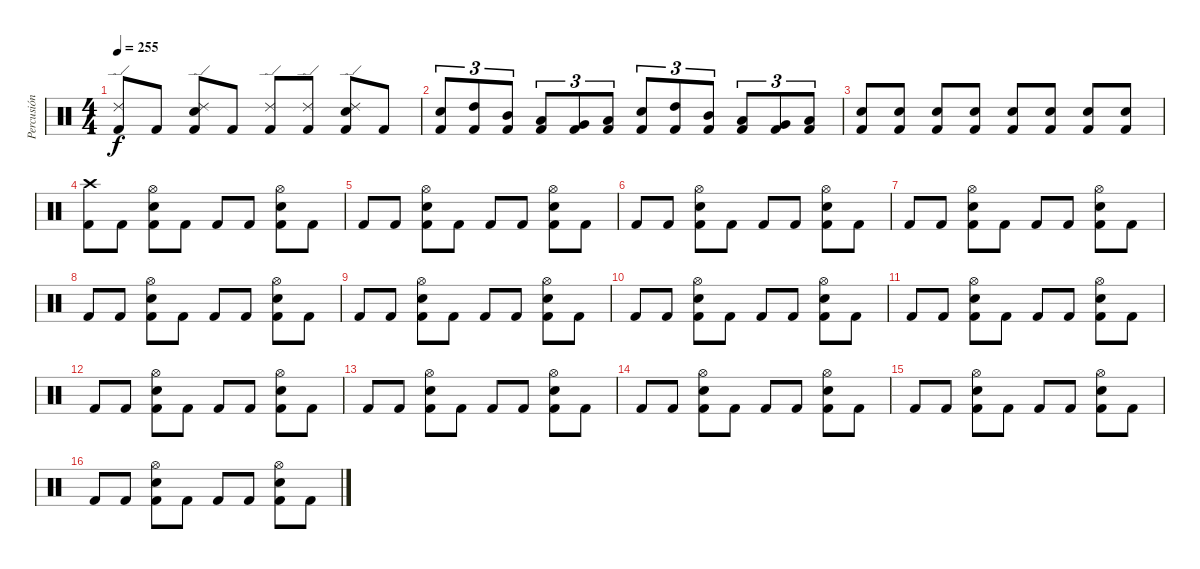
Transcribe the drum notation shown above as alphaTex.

\track ("Percusión" "Percusión") {instrument percussion}
\staff {score}
\articulation defaults
\ts (4 4)
\tempo 255
\clef neutral
\ks c
("Kick (hit) 2" "Ride (edge) 2").8{dy f} "Kick (hit) 2".8 ("Kick (hit) 2" "Electric Snare (hit)" "Ride (edge) 2").8 "Kick (hit) 2".8 ("Kick (hit) 2" "Ride (edge) 2").8 ("Kick (hit) 2" "Ride (edge) 2").8 ("Kick (hit) 2" "Electric Snare (hit)" "Ride (edge) 2").8 "Kick (hit) 2".8 |
("Kick (hit) 2" "Electric Snare (hit)").8{tu (3 2)} ("Kick (hit) 2" "High Tom (hit)").8{tu (3 2)} ("Kick (hit) 2" "Mid Tom (hit)").8{tu (3 2)} ("Kick (hit) 2" "Low Tom (hit)").8{tu (3 2)} ("Kick (hit) 2" "Very Low Tom (hit)").8{tu (3 2)} ("Kick (hit) 2" "Low Floor Tom (hit)").8{tu (3 2)} ("Kick (hit) 2" "Electric Snare (hit)").8{tu (3 2)} ("Kick (hit) 2" "High Tom (hit)").8{tu (3 2)} ("Kick (hit) 2" "Mid Tom (hit)").8{tu (3 2)} ("Kick (hit) 2" "Low Tom (hit)").8{tu (3 2)} ("Kick (hit) 2" "Very Low Tom (hit)").8{tu (3 2)} ("Kick (hit) 2" "Low Floor Tom (hit)").8{tu (3 2)} |
("Kick (hit) 2" "Electric Snare (hit)").8 ("Kick (hit) 2" "Electric Snare (hit)").8 ("Kick (hit) 2" "Electric Snare (hit)").8 ("Kick (hit) 2" "Electric Snare (hit)").8 ("Kick (hit) 2" "Electric Snare (hit)").8 ("Kick (hit) 2" "Electric Snare (hit)").8 ("Kick (hit) 2" "Electric Snare (hit)").8 ("Kick (hit) 2" "Electric Snare (hit)").8 |
("Kick (hit) 2" "Crash high (hit)").8 "Kick (hit) 2".8 ("Kick (hit) 2" "Electric Snare (hit)" "Hi-Hat (open)").8 "Kick (hit) 2".8 "Kick (hit) 2".8 "Kick (hit) 2".8 ("Kick (hit) 2" "Electric Snare (hit)" "Hi-Hat (open)").8 "Kick (hit) 2".8 |
"Kick (hit) 2".8 "Kick (hit) 2".8 ("Kick (hit) 2" "Electric Snare (hit)" "Hi-Hat (open)").8 "Kick (hit) 2".8 "Kick (hit) 2".8 "Kick (hit) 2".8 ("Kick (hit) 2" "Electric Snare (hit)" "Hi-Hat (open)").8 "Kick (hit) 2".8 |
"Kick (hit) 2".8 "Kick (hit) 2".8 ("Kick (hit) 2" "Electric Snare (hit)" "Hi-Hat (open)").8 "Kick (hit) 2".8 "Kick (hit) 2".8 "Kick (hit) 2".8 ("Kick (hit) 2" "Electric Snare (hit)" "Hi-Hat (open)").8 "Kick (hit) 2".8 |
"Kick (hit) 2".8 "Kick (hit) 2".8 ("Kick (hit) 2" "Electric Snare (hit)" "Hi-Hat (open)").8 "Kick (hit) 2".8 "Kick (hit) 2".8 "Kick (hit) 2".8 ("Kick (hit) 2" "Electric Snare (hit)" "Hi-Hat (open)").8 "Kick (hit) 2".8 |
"Kick (hit) 2".8 "Kick (hit) 2".8 ("Kick (hit) 2" "Electric Snare (hit)" "Hi-Hat (open)").8 "Kick (hit) 2".8 "Kick (hit) 2".8 "Kick (hit) 2".8 ("Kick (hit) 2" "Electric Snare (hit)" "Hi-Hat (open)").8 "Kick (hit) 2".8 |
"Kick (hit) 2".8 "Kick (hit) 2".8 ("Kick (hit) 2" "Electric Snare (hit)" "Hi-Hat (open)").8 "Kick (hit) 2".8 "Kick (hit) 2".8 "Kick (hit) 2".8 ("Kick (hit) 2" "Electric Snare (hit)" "Hi-Hat (open)").8 "Kick (hit) 2".8 |
"Kick (hit) 2".8 "Kick (hit) 2".8 ("Kick (hit) 2" "Electric Snare (hit)" "Hi-Hat (open)").8 "Kick (hit) 2".8 "Kick (hit) 2".8 "Kick (hit) 2".8 ("Kick (hit) 2" "Electric Snare (hit)" "Hi-Hat (open)").8 "Kick (hit) 2".8 |
"Kick (hit) 2".8 "Kick (hit) 2".8 ("Kick (hit) 2" "Electric Snare (hit)" "Hi-Hat (open)").8 "Kick (hit) 2".8 "Kick (hit) 2".8 "Kick (hit) 2".8 ("Kick (hit) 2" "Electric Snare (hit)" "Hi-Hat (open)").8 "Kick (hit) 2".8 |
"Kick (hit) 2".8 "Kick (hit) 2".8 ("Kick (hit) 2" "Electric Snare (hit)" "Hi-Hat (open)").8 "Kick (hit) 2".8 "Kick (hit) 2".8 "Kick (hit) 2".8 ("Kick (hit) 2" "Electric Snare (hit)" "Hi-Hat (open)").8 "Kick (hit) 2".8 |
"Kick (hit) 2".8 "Kick (hit) 2".8 ("Kick (hit) 2" "Electric Snare (hit)" "Hi-Hat (open)").8 "Kick (hit) 2".8 "Kick (hit) 2".8 "Kick (hit) 2".8 ("Kick (hit) 2" "Electric Snare (hit)" "Hi-Hat (open)").8 "Kick (hit) 2".8 |
"Kick (hit) 2".8 "Kick (hit) 2".8 ("Kick (hit) 2" "Electric Snare (hit)" "Hi-Hat (open)").8 "Kick (hit) 2".8 "Kick (hit) 2".8 "Kick (hit) 2".8 ("Kick (hit) 2" "Electric Snare (hit)" "Hi-Hat (open)").8 "Kick (hit) 2".8 |
"Kick (hit) 2".8 "Kick (hit) 2".8 ("Kick (hit) 2" "Electric Snare (hit)" "Hi-Hat (open)").8 "Kick (hit) 2".8 "Kick (hit) 2".8 "Kick (hit) 2".8 ("Kick (hit) 2" "Electric Snare (hit)" "Hi-Hat (open)").8 "Kick (hit) 2".8 |
"Kick (hit) 2".8 "Kick (hit) 2".8 ("Kick (hit) 2" "Electric Snare (hit)" "Hi-Hat (open)").8 "Kick (hit) 2".8 "Kick (hit) 2".8 "Kick (hit) 2".8 ("Kick (hit) 2" "Electric Snare (hit)" "Hi-Hat (open)").8 "Kick (hit) 2".8
